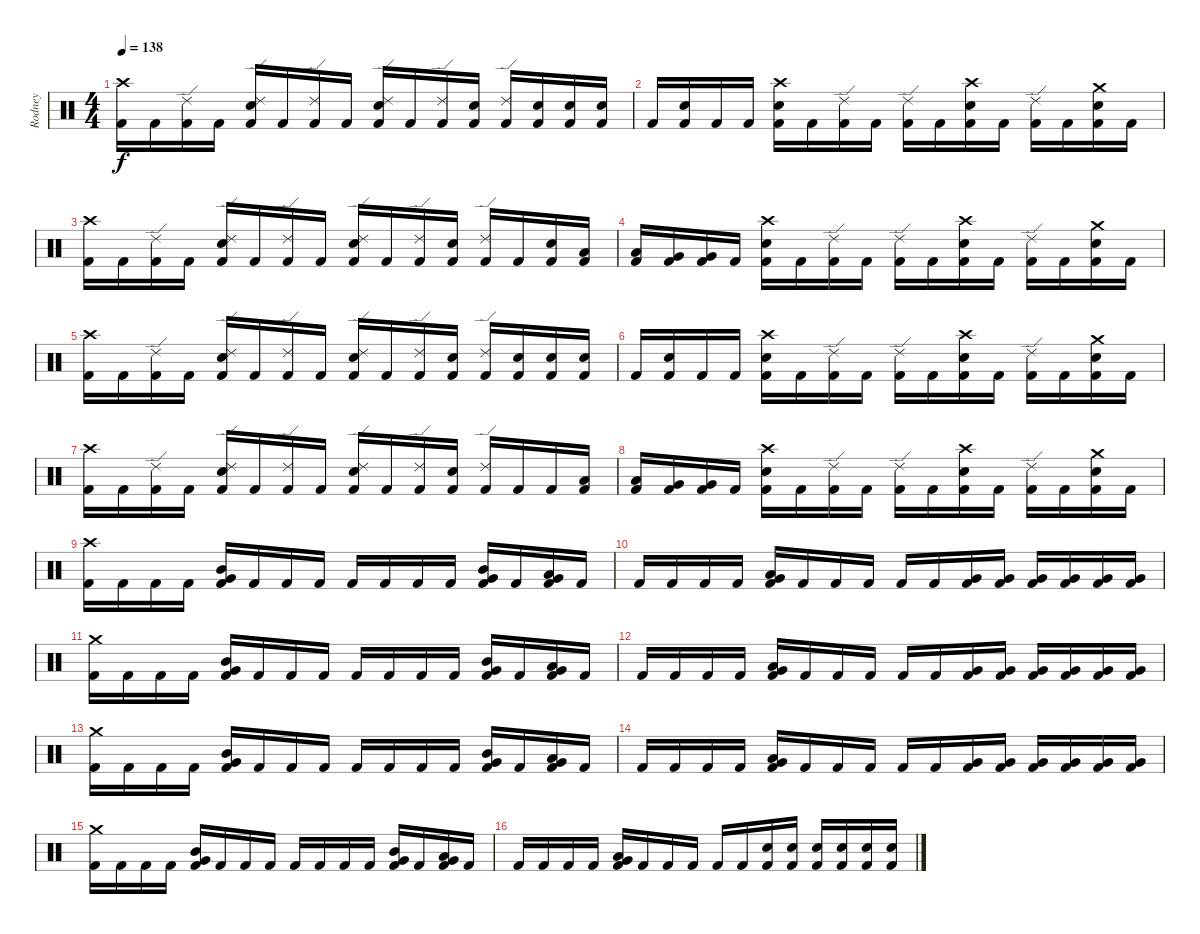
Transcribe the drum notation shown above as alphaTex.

\track ("Rodney" "Rodney") {instrument percussion}
\staff {score}
\articulation defaults
\ts (4 4)
\tempo 138
\clef neutral
\ks c
("Crash high (hit)" "Kick (hit) 2").16{dy f} "Kick (hit) 2".16 ("Ride (edge) 2" "Kick (hit) 2").16 "Kick (hit) 2".16 ("Ride (edge) 2" "Snare (hit) 2" "Kick (hit) 2").16 "Kick (hit) 2".16 ("Ride (edge) 2" "Kick (hit) 2").16 "Kick (hit) 2".16 ("Ride (edge) 2" "Snare (hit) 2" "Kick (hit) 2").16 "Kick (hit) 2".16 ("Ride (edge) 2" "Kick (hit) 2").16 ("Snare (hit) 2" "Kick (hit) 2").16 ("Ride (edge) 2" "Kick (hit) 2").16 ("Snare (hit) 2" "Kick (hit) 2").16 ("Snare (hit) 2" "Kick (hit) 2").16 ("Snare (hit) 2" "Kick (hit) 2").16 |
"Kick (hit) 2".16 ("Snare (hit) 2" "Kick (hit) 2").16 "Kick (hit) 2".16 "Kick (hit) 2".16 ("Crash high (hit)" "Snare (hit) 2" "Kick (hit) 2").16 "Kick (hit) 2".16 ("Ride (edge) 2" "Kick (hit) 2").16 "Kick (hit) 2".16 ("Ride (edge) 2" "Kick (hit) 2").16 "Kick (hit) 2".16 ("Crash high (hit)" "Snare (hit) 2" "Kick (hit) 2").16 "Kick (hit) 2".16 ("Ride (edge) 2" "Kick (hit) 2").16 "Kick (hit) 2".16 ("Crash medium (hit)" "Snare (hit) 2" "Kick (hit) 2").16 "Kick (hit) 2".16 |
("Crash high (hit)" "Kick (hit) 2").16 "Kick (hit) 2".16 ("Ride (edge) 2" "Kick (hit) 2").16 "Kick (hit) 2".16 ("Ride (edge) 2" "Snare (hit) 2" "Kick (hit) 2").16 "Kick (hit) 2".16 ("Ride (edge) 2" "Kick (hit) 2").16 "Kick (hit) 2".16 ("Ride (edge) 2" "Snare (hit) 2" "Kick (hit) 2").16 "Kick (hit) 2".16 ("Ride (edge) 2" "Kick (hit) 2").16 ("Snare (hit) 2" "Kick (hit) 2").16 ("Ride (edge) 2" "Kick (hit) 2").16 "Kick (hit) 2".16 ("Snare (hit) 2" "Kick (hit) 2").16 ("Low Tom (hit)" "Kick (hit) 2").16 |
("Low Tom (hit)" "Kick (hit) 2").16 ("Very Low Tom (hit)" "Kick (hit) 2").16 ("Very Low Tom (hit)" "Kick (hit) 2").16 "Kick (hit) 2".16 ("Crash high (hit)" "Snare (hit) 2" "Kick (hit) 2").16 "Kick (hit) 2".16 ("Ride (edge) 2" "Kick (hit) 2").16 "Kick (hit) 2".16 ("Ride (edge) 2" "Kick (hit) 2").16 "Kick (hit) 2".16 ("Crash high (hit)" "Snare (hit) 2" "Kick (hit) 2").16 "Kick (hit) 2".16 ("Ride (edge) 2" "Kick (hit) 2").16 "Kick (hit) 2".16 ("Crash medium (hit)" "Snare (hit) 2" "Kick (hit) 2").16 "Kick (hit) 2".16 |
("Crash high (hit)" "Kick (hit) 2").16 "Kick (hit) 2".16 ("Ride (edge) 2" "Kick (hit) 2").16 "Kick (hit) 2".16 ("Ride (edge) 2" "Snare (hit) 2" "Kick (hit) 2").16 "Kick (hit) 2".16 ("Ride (edge) 2" "Kick (hit) 2").16 "Kick (hit) 2".16 ("Ride (edge) 2" "Snare (hit) 2" "Kick (hit) 2").16 "Kick (hit) 2".16 ("Ride (edge) 2" "Kick (hit) 2").16 ("Snare (hit) 2" "Kick (hit) 2").16 ("Ride (edge) 2" "Kick (hit) 2").16 ("Snare (hit) 2" "Kick (hit) 2").16 ("Snare (hit) 2" "Kick (hit) 2").16 ("Snare (hit) 2" "Kick (hit) 2").16 |
"Kick (hit) 2".16 ("Snare (hit) 2" "Kick (hit) 2").16 "Kick (hit) 2".16 "Kick (hit) 2".16 ("Crash high (hit)" "Snare (hit) 2" "Kick (hit) 2").16 "Kick (hit) 2".16 ("Ride (edge) 2" "Kick (hit) 2").16 "Kick (hit) 2".16 ("Ride (edge) 2" "Kick (hit) 2").16 "Kick (hit) 2".16 ("Crash high (hit)" "Snare (hit) 2" "Kick (hit) 2").16 "Kick (hit) 2".16 ("Ride (edge) 2" "Kick (hit) 2").16 "Kick (hit) 2".16 ("Crash medium (hit)" "Snare (hit) 2" "Kick (hit) 2").16 "Kick (hit) 2".16 |
("Crash high (hit)" "Kick (hit) 2").16 "Kick (hit) 2".16 ("Ride (edge) 2" "Kick (hit) 2").16 "Kick (hit) 2".16 ("Ride (edge) 2" "Snare (hit) 2" "Kick (hit) 2").16 "Kick (hit) 2".16 ("Ride (edge) 2" "Kick (hit) 2").16 "Kick (hit) 2".16 ("Ride (edge) 2" "Snare (hit) 2" "Kick (hit) 2").16 "Kick (hit) 2".16 ("Ride (edge) 2" "Kick (hit) 2").16 ("Snare (hit) 2" "Kick (hit) 2").16 ("Ride (edge) 2" "Kick (hit) 2").16 "Kick (hit) 2".16 "Kick (hit) 2".16 ("Low Tom (hit)" "Kick (hit) 2").16 |
("Low Tom (hit)" "Kick (hit) 2").16 ("Very Low Tom (hit)" "Kick (hit) 2").16 ("Very Low Tom (hit)" "Kick (hit) 2").16 "Kick (hit) 2".16 ("Crash high (hit)" "Snare (hit) 2" "Kick (hit) 2").16 "Kick (hit) 2".16 ("Ride (edge) 2" "Kick (hit) 2").16 "Kick (hit) 2".16 ("Ride (edge) 2" "Kick (hit) 2").16 "Kick (hit) 2".16 ("Crash high (hit)" "Snare (hit) 2" "Kick (hit) 2").16 "Kick (hit) 2".16 ("Ride (edge) 2" "Kick (hit) 2").16 "Kick (hit) 2".16 ("Crash medium (hit)" "Snare (hit) 2" "Kick (hit) 2").16 "Kick (hit) 2".16 |
("Crash high (hit)" "Kick (hit) 2").16 "Kick (hit) 2".16 "Kick (hit) 2".16 "Kick (hit) 2".16 ("Mid Tom (hit)" "Very Low Tom (hit)" "Kick (hit) 2").16 "Kick (hit) 2".16 "Kick (hit) 2".16 "Kick (hit) 2".16 "Kick (hit) 2".16 "Kick (hit) 2".16 "Kick (hit) 2".16 "Kick (hit) 2".16 ("Mid Tom (hit)" "Very Low Tom (hit)" "Kick (hit) 2").16 "Kick (hit) 2".16 ("Low Tom (hit)" "Very Low Tom (hit)" "Kick (hit) 2").16 "Kick (hit) 2".16 |
"Kick (hit) 2".16 "Kick (hit) 2".16 "Kick (hit) 2".16 "Kick (hit) 2".16 ("Low Tom (hit)" "Very Low Tom (hit)" "Kick (hit) 2").16 "Kick (hit) 2".16 "Kick (hit) 2".16 "Kick (hit) 2".16 "Kick (hit) 2".16 "Kick (hit) 2".16 ("Very Low Tom (hit)" "Kick (hit) 2").16 ("Very Low Tom (hit)" "Kick (hit) 2").16 ("Very Low Tom (hit)" "Kick (hit) 2").16 ("Very Low Tom (hit)" "Kick (hit) 2").16 ("Very Low Tom (hit)" "Kick (hit) 2").16 ("Very Low Tom (hit)" "Kick (hit) 2").16 |
("Crash medium (hit)" "Kick (hit) 2").16 "Kick (hit) 2".16 "Kick (hit) 2".16 "Kick (hit) 2".16 ("Mid Tom (hit)" "Very Low Tom (hit)" "Kick (hit) 2").16 "Kick (hit) 2".16 "Kick (hit) 2".16 "Kick (hit) 2".16 "Kick (hit) 2".16 "Kick (hit) 2".16 "Kick (hit) 2".16 "Kick (hit) 2".16 ("Mid Tom (hit)" "Very Low Tom (hit)" "Kick (hit) 2").16 "Kick (hit) 2".16 ("Low Tom (hit)" "Very Low Tom (hit)" "Kick (hit) 2").16 "Kick (hit) 2".16 |
"Kick (hit) 2".16 "Kick (hit) 2".16 "Kick (hit) 2".16 "Kick (hit) 2".16 ("Low Tom (hit)" "Very Low Tom (hit)" "Kick (hit) 2").16 "Kick (hit) 2".16 "Kick (hit) 2".16 "Kick (hit) 2".16 "Kick (hit) 2".16 "Kick (hit) 2".16 ("Very Low Tom (hit)" "Kick (hit) 2").16 ("Very Low Tom (hit)" "Kick (hit) 2").16 ("Very Low Tom (hit)" "Kick (hit) 2").16 ("Very Low Tom (hit)" "Kick (hit) 2").16 ("Very Low Tom (hit)" "Kick (hit) 2").16 ("Very Low Tom (hit)" "Kick (hit) 2").16 |
("Crash medium (hit)" "Kick (hit) 2").16 "Kick (hit) 2".16 "Kick (hit) 2".16 "Kick (hit) 2".16 ("Mid Tom (hit)" "Very Low Tom (hit)" "Kick (hit) 2").16 "Kick (hit) 2".16 "Kick (hit) 2".16 "Kick (hit) 2".16 "Kick (hit) 2".16 "Kick (hit) 2".16 "Kick (hit) 2".16 "Kick (hit) 2".16 ("Mid Tom (hit)" "Very Low Tom (hit)" "Kick (hit) 2").16 "Kick (hit) 2".16 ("Low Tom (hit)" "Very Low Tom (hit)" "Kick (hit) 2").16 "Kick (hit) 2".16 |
"Kick (hit) 2".16 "Kick (hit) 2".16 "Kick (hit) 2".16 "Kick (hit) 2".16 ("Low Tom (hit)" "Very Low Tom (hit)" "Kick (hit) 2").16 "Kick (hit) 2".16 "Kick (hit) 2".16 "Kick (hit) 2".16 "Kick (hit) 2".16 "Kick (hit) 2".16 ("Very Low Tom (hit)" "Kick (hit) 2").16 ("Very Low Tom (hit)" "Kick (hit) 2").16 ("Very Low Tom (hit)" "Kick (hit) 2").16 ("Very Low Tom (hit)" "Kick (hit) 2").16 ("Very Low Tom (hit)" "Kick (hit) 2").16 ("Very Low Tom (hit)" "Kick (hit) 2").16 |
("Crash medium (hit)" "Kick (hit) 2").16 "Kick (hit) 2".16 "Kick (hit) 2".16 "Kick (hit) 2".16 ("Mid Tom (hit)" "Very Low Tom (hit)" "Kick (hit) 2").16 "Kick (hit) 2".16 "Kick (hit) 2".16 "Kick (hit) 2".16 "Kick (hit) 2".16 "Kick (hit) 2".16 "Kick (hit) 2".16 "Kick (hit) 2".16 ("Mid Tom (hit)" "Very Low Tom (hit)" "Kick (hit) 2").16 "Kick (hit) 2".16 ("Low Tom (hit)" "Very Low Tom (hit)" "Kick (hit) 2").16 "Kick (hit) 2".16 |
"Kick (hit) 2".16 "Kick (hit) 2".16 "Kick (hit) 2".16 "Kick (hit) 2".16 ("Low Tom (hit)" "Very Low Tom (hit)" "Kick (hit) 2").16 "Kick (hit) 2".16 "Kick (hit) 2".16 "Kick (hit) 2".16 "Kick (hit) 2".16 "Kick (hit) 2".16 ("Snare (hit) 2" "Kick (hit) 2").16 ("Snare (hit) 2" "Kick (hit) 2").16 ("Snare (hit) 2" "Kick (hit) 2").16 ("Snare (hit) 2" "Kick (hit) 2").16 ("Snare (hit) 2" "Kick (hit) 2").16 ("Snare (hit) 2" "Kick (hit) 2").16
